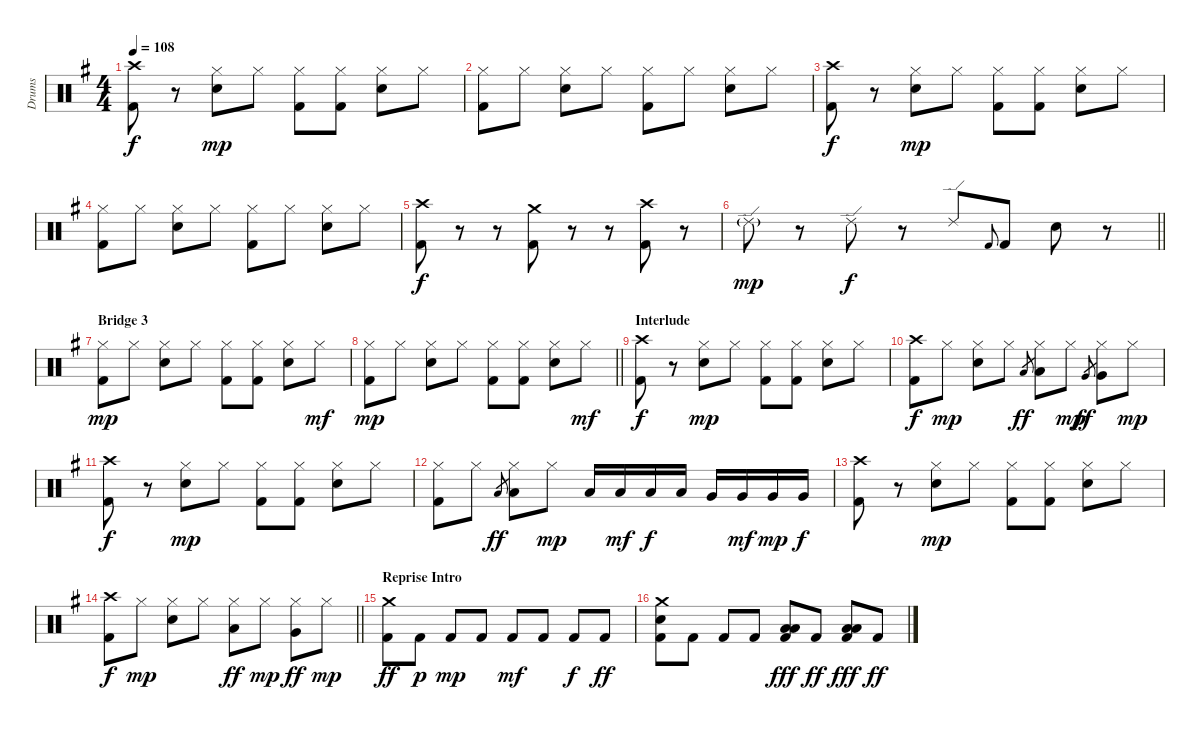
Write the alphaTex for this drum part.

\track ("Drums" "Drums") {instrument percussion}
\staff {score}
\articulation defaults
\ts (4 4)
\tempo 108
\clef neutral
\ks g
("Crash high (hit)" "Kick (hit) 2").8{dy f} r.8 ("Hi-Hat (closed)" "Snare (hit) 2").8{dy mp} "Hi-Hat (closed)".8 ("Hi-Hat (closed)" "Kick (hit) 2").8 ("Hi-Hat (closed)" "Kick (hit) 2").8 ("Hi-Hat (closed)" "Snare (hit) 2").8 "Hi-Hat (closed)".8 |
("Hi-Hat (closed)" "Kick (hit) 2").8 "Hi-Hat (closed)".8 ("Hi-Hat (closed)" "Snare (hit) 2").8 "Hi-Hat (closed)".8 ("Hi-Hat (closed)" "Kick (hit) 2").8 "Hi-Hat (closed)".8 ("Hi-Hat (closed)" "Snare (hit) 2").8 "Hi-Hat (closed)".8 |
("Crash high (hit)" "Kick (hit) 2").8{dy f} r.8 ("Hi-Hat (closed)" "Snare (hit) 2").8{dy mp} "Hi-Hat (closed)".8 ("Hi-Hat (closed)" "Kick (hit) 2").8 ("Hi-Hat (closed)" "Kick (hit) 2").8 ("Hi-Hat (closed)" "Snare (hit) 2").8 "Hi-Hat (closed)".8 |
("Hi-Hat (closed)" "Kick (hit) 2").8 "Hi-Hat (closed)".8 ("Hi-Hat (closed)" "Snare (hit) 2").8 "Hi-Hat (closed)".8 ("Hi-Hat (closed)" "Kick (hit) 2").8 "Hi-Hat (closed)".8 ("Hi-Hat (closed)" "Snare (hit) 2").8 "Hi-Hat (closed)".8 |
("Crash high (hit)" "Kick (hit) 2").8{dy f} r.8 r.8 ("Crash medium (hit)" "Kick (hit) 2").8 r.8 r.8 ("Crash high (hit)" "Kick (hit) 2").8 r.8 |
\barLineRight lightlight "Ride (edge) 2"{g}.8{dy mp}
r.8 "Ride (edge) 2".8{dy f} r.8 "Ride (edge) 2".8 "Kick (hit) 2".8{gr onbeat} "Kick (hit) 2".8 "Snare (hit) 2".8 r.8 |
\section ("" "Bridge 3")
("Hi-Hat (closed)" "Kick (hit) 2").8{dy mp} "Hi-Hat (closed)".8 ("Hi-Hat (closed)" "Snare (hit) 2").8 "Hi-Hat (closed)".8 ("Hi-Hat (closed)" "Kick (hit) 2").8 ("Hi-Hat (closed)" "Kick (hit) 2").8 ("Hi-Hat (closed)" "Snare (hit) 2").8 "Hi-Hat (closed)".8{dy mf} |
\barLineRight lightlight
("Hi-Hat (closed)" "Kick (hit) 2").8{dy mp} "Hi-Hat (closed)".8 ("Hi-Hat (closed)" "Snare (hit) 2").8 "Hi-Hat (closed)".8 ("Hi-Hat (closed)" "Kick (hit) 2").8 ("Hi-Hat (closed)" "Kick (hit) 2").8 ("Hi-Hat (closed)" "Snare (hit) 2").8 "Hi-Hat (closed)".8{dy mf} |
\section ("" "Interlude")
("Crash high (hit)" "Kick (hit) 2").8{dy f} r.8 ("Hi-Hat (closed)" "Snare (hit) 2").8{dy mp} "Hi-Hat (closed)".8 ("Hi-Hat (closed)" "Kick (hit) 2").8 ("Hi-Hat (closed)" "Kick (hit) 2").8 ("Hi-Hat (closed)" "Snare (hit) 2").8 "Hi-Hat (closed)".8 |
("Crash high (hit)" "Kick (hit) 2").8{dy f} "Hi-Hat (closed)".8{dy mp} ("Hi-Hat (closed)" "Snare (hit) 2").8 "Hi-Hat (closed)".8 "Low Tom (hit)".8{gr dy ff} ("Hi-Hat (closed)" "Low Tom (hit)").8 "Hi-Hat (closed)".8{dy mp} "Very Low Tom (hit)".8{gr dy ff} ("Hi-Hat (closed)" "Very Low Tom (hit)").8 "Hi-Hat (closed)".8{dy mp} |
("Crash high (hit)" "Kick (hit) 2").8{dy f} r.8 ("Hi-Hat (closed)" "Snare (hit) 2").8{dy mp} "Hi-Hat (closed)".8 ("Hi-Hat (closed)" "Kick (hit) 2").8 ("Hi-Hat (closed)" "Kick (hit) 2").8 ("Hi-Hat (closed)" "Snare (hit) 2").8 "Hi-Hat (closed)".8 |
("Hi-Hat (closed)" "Kick (hit) 2").8 "Hi-Hat (closed)".8 "Low Tom (hit)".8{gr dy ff} ("Hi-Hat (closed)" "Low Tom (hit)").8 "Hi-Hat (closed)".8{dy mp} "Low Tom (hit)".16 "Low Tom (hit)".16{dy mf} "Low Tom (hit)".16{dy f} "Low Tom (hit)".16 "Very Low Tom (hit)".16 "Very Low Tom (hit)".16{dy mf} "Very Low Tom (hit)".16{dy mp} "Very Low Tom (hit)".16{dy f} |
("Crash high (hit)" "Kick (hit) 2").8 r.8 ("Hi-Hat (closed)" "Snare (hit) 2").8{dy mp} "Hi-Hat (closed)".8 ("Hi-Hat (closed)" "Kick (hit) 2").8 ("Hi-Hat (closed)" "Kick (hit) 2").8 ("Hi-Hat (closed)" "Snare (hit) 2").8 "Hi-Hat (closed)".8 |
\barLineRight lightlight
("Crash high (hit)" "Kick (hit) 2").8{dy f} "Hi-Hat (closed)".8{dy mp} ("Hi-Hat (closed)" "Snare (hit) 2").8 "Hi-Hat (closed)".8 ("Hi-Hat (closed)" "Low Tom (hit)").8{dy ff} "Hi-Hat (closed)".8{dy mp} ("Hi-Hat (closed)" "Very Low Tom (hit)").8{dy ff} "Hi-Hat (closed)".8{dy mp} |
\section ("" "Reprise Intro")
("Crash medium (hit)" "Kick (hit) 2").8{dy ff} "Kick (hit) 2".8{dy p} "Kick (hit) 2".8{dy mp} "Kick (hit) 2".8 "Kick (hit) 2".8{dy mf} "Kick (hit) 2".8 "Kick (hit) 2".8{dy f} "Kick (hit) 2".8{dy ff} |
("Crash medium (hit)" "Snare (hit) 2" "Kick (hit) 2").8 "Kick (hit) 2".8 "Kick (hit) 2".8 "Kick (hit) 2".8 ("Low Tom (hit)" "Low Floor Tom (hit)" "Kick (hit) 2").8{dy fff} "Kick (hit) 2".8{dy ff} ("Low Tom (hit)" "Low Floor Tom (hit)" "Kick (hit) 2").8{dy fff} "Kick (hit) 2".8{dy ff}
